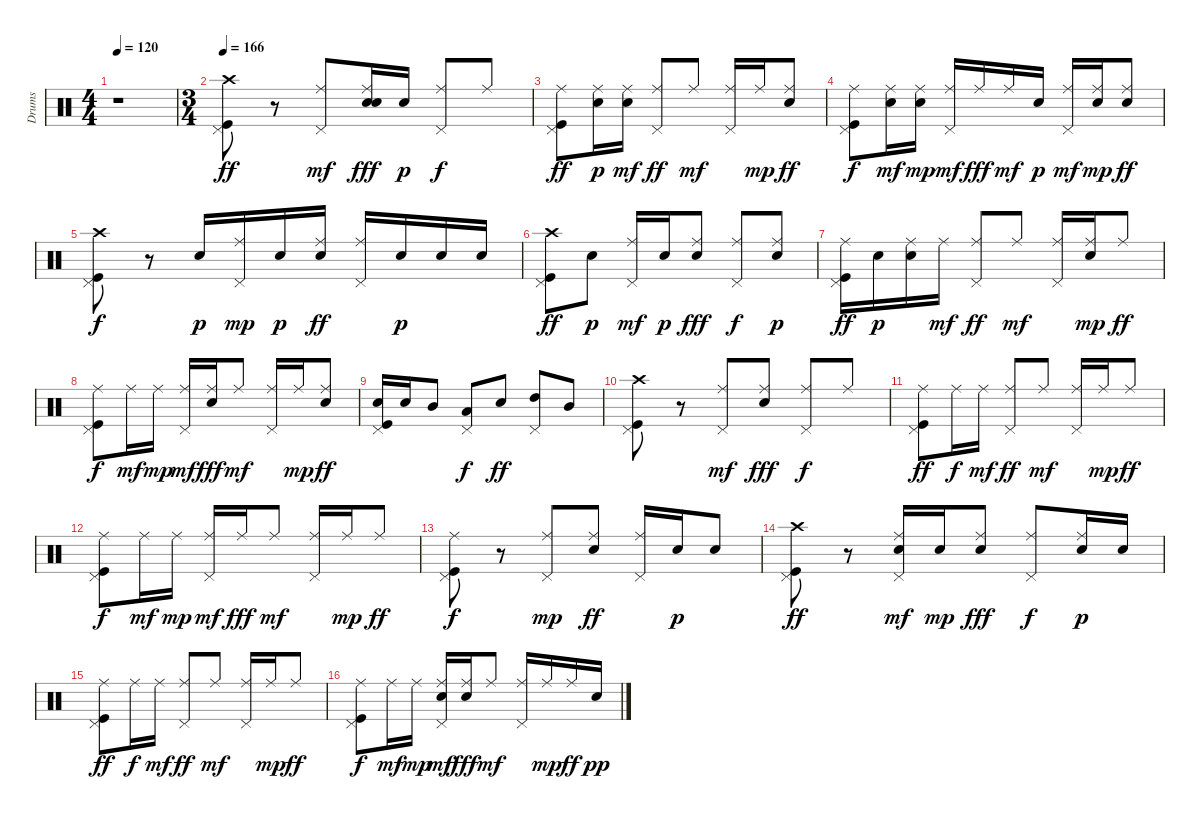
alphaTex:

\track ("Drums" "Drums") {instrument percussion}
\staff {score}
\articulation defaults
\ts (4 4)
\tempo 120
\clef neutral
\ks c
r.1{dy ff} |
\ts (3 4)
\tempo 166
("Kick (hit)" "Pedal Hi-Hat (hit)" "Crash high (hit)").8 r.8 ("Pedal Hi-Hat (hit)" "Ride (middle)").8{dy mf} ("Snare (hit) 2" "Electric Snare (hit)" "Ride (middle)").16{dy fff} "Snare (hit) 2".16{dy p} ("Pedal Hi-Hat (hit)" "Ride (middle)").8{dy f} "Ride (middle)".8 |
("Kick (hit)" "Pedal Hi-Hat (hit)" "Ride (middle)").8{dy ff} ("Snare (hit) 2" "Ride (middle)").16{dy p} ("Snare (hit) 2" "Ride (middle)").16{dy mf} ("Pedal Hi-Hat (hit)" "Ride (middle)").8{dy ff} "Ride (middle)".8{dy mf} ("Pedal Hi-Hat (hit)" "Ride (middle)").16 "Ride (middle)".16{dy mp} ("Snare (hit) 2" "Ride (middle)").8{dy ff} |
("Kick (hit)" "Pedal Hi-Hat (hit)" "Ride (middle)").8{dy f} ("Snare (hit) 2" "Ride (middle)").16{dy mf} ("Snare (hit) 2" "Ride (middle)").16{dy mp} ("Pedal Hi-Hat (hit)" "Ride (middle)").16{dy mf} "Ride (middle)".16{dy fff} "Ride (middle)".16{dy mf} "Snare (hit) 2".16{dy p} ("Pedal Hi-Hat (hit)" "Ride (middle)").16{dy mf} ("Snare (hit) 2" "Ride (middle)").16{dy mp} ("Snare (hit) 2" "Ride (middle)").8{dy ff} |
("Kick (hit)" "Pedal Hi-Hat (hit)" "Crash high (hit)").8{dy f} r.8 "Snare (hit) 2".16{dy p} ("Pedal Hi-Hat (hit)" "Ride (middle)").16{dy mp} "Snare (hit) 2".16{dy p} ("Electric Snare (hit)" "Ride (middle)").16{dy ff} ("Pedal Hi-Hat (hit)" "Ride (middle)").16 "Snare (hit) 2".16{dy p} "Snare (hit) 2".16 "Snare (hit) 2".16 |
("Kick (hit)" "Pedal Hi-Hat (hit)" "Crash high (hit)").8{dy ff} "Snare (hit) 2".8{dy p} ("Pedal Hi-Hat (hit)" "Ride (middle)").16{dy mf} "Snare (hit) 2".16{dy p} ("Electric Snare (hit)" "Ride (middle)").8{dy fff} ("Pedal Hi-Hat (hit)" "Ride (middle)").8{dy f} ("Snare (hit) 2" "Ride (middle)").8{dy p} |
("Kick (hit)" "Pedal Hi-Hat (hit)" "Ride (middle)").16{dy ff} "Snare (hit) 2".16{dy p} ("Snare (hit) 2" "Ride (middle)").16 "Ride (middle)".16{dy mf} ("Pedal Hi-Hat (hit)" "Ride (middle)").8{dy ff} "Ride (middle)".8{dy mf} ("Pedal Hi-Hat (hit)" "Ride (middle)").16 ("Snare (hit) 2" "Ride (middle)").16{dy mp} "Ride (middle)".8{dy ff} |
("Kick (hit)" "Pedal Hi-Hat (hit)" "Ride (middle)").8{dy f} "Ride (middle)".16{dy mf} "Ride (middle)".16{dy mp} ("Pedal Hi-Hat (hit)" "Ride (middle)").16{dy mf} ("Snare (hit) 2" "Ride (middle)").16{dy fff} "Ride (middle)".8{dy mf} ("Pedal Hi-Hat (hit)" "Ride (middle)").16 "Ride (middle)".16{dy mp} ("Snare (hit) 2" "Ride (middle)").8{dy ff} |
("Kick (hit)" "Electric Snare (hit)" "Pedal Hi-Hat (hit)").16 "Electric Snare (hit)".16 "Mid Tom (hit)".8 ("Low Tom (hit)" "Pedal Hi-Hat (hit)").8{dy f} "Electric Snare (hit)".8{dy ff} ("High Tom (hit)" "Pedal Hi-Hat (hit)").8 "Mid Tom (hit)".8 |
("Kick (hit)" "Pedal Hi-Hat (hit)" "Crash high (hit)").8 r.8 ("Pedal Hi-Hat (hit)" "Ride (middle)").8{dy mf} ("Electric Snare (hit)" "Ride (middle)").8{dy fff} ("Pedal Hi-Hat (hit)" "Ride (middle)").8{dy f} "Ride (middle)".8 |
("Kick (hit)" "Pedal Hi-Hat (hit)" "Ride (middle)").8{dy ff} "Ride (middle)".16{dy f} "Ride (middle)".16{dy mf} ("Pedal Hi-Hat (hit)" "Ride (middle)").8{dy ff} "Ride (middle)".8{dy mf} ("Pedal Hi-Hat (hit)" "Ride (middle)").16 "Ride (middle)".16{dy mp} "Ride (middle)".8{dy ff} |
("Kick (hit)" "Pedal Hi-Hat (hit)" "Ride (middle)").8{dy f} "Ride (middle)".16{dy mf} "Ride (middle)".16{dy mp} ("Pedal Hi-Hat (hit)" "Ride (middle)").16{dy mf} "Ride (middle)".16{dy fff} "Ride (middle)".8{dy mf} ("Pedal Hi-Hat (hit)" "Ride (middle)").16 "Ride (middle)".16{dy mp} "Ride (middle)".8{dy ff} |
("Kick (hit)" "Pedal Hi-Hat (hit)" "Ride (middle)").8{dy f} r.8 ("Pedal Hi-Hat (hit)" "Ride (middle)").8{dy mp} ("Snare (hit) 2" "Ride (middle)").8{dy ff} ("Pedal Hi-Hat (hit)" "Ride (middle)").16 "Snare (hit) 2".16{dy p} "Snare (hit) 2".8 |
("Kick (hit)" "Pedal Hi-Hat (hit)" "Crash high (hit)").8{dy ff} r.8 ("Snare (hit) 2" "Pedal Hi-Hat (hit)" "Ride (middle)").16{dy mf} "Snare (hit) 2".16{dy mp} ("Snare (hit) 2" "Ride (middle)").8{dy fff} ("Pedal Hi-Hat (hit)" "Ride (middle)").8{dy f} ("Snare (hit) 2" "Ride (middle)").16{dy p} "Snare (hit) 2".16 |
("Kick (hit)" "Pedal Hi-Hat (hit)" "Ride (middle)").8{dy ff} "Ride (middle)".16{dy f} "Ride (middle)".16{dy mf} ("Pedal Hi-Hat (hit)" "Ride (middle)").8{dy ff} "Ride (middle)".8{dy mf} ("Pedal Hi-Hat (hit)" "Ride (middle)").16 "Ride (middle)".16{dy mp} "Ride (middle)".8{dy ff} |
("Kick (hit)" "Pedal Hi-Hat (hit)" "Ride (middle)").8{dy f} "Ride (middle)".16{dy mf} "Ride (middle)".16{dy mp} ("Snare (hit) 2" "Pedal Hi-Hat (hit)" "Ride (middle)").16{dy mf} ("Snare (hit) 2" "Ride (middle)").16{dy fff} "Ride (middle)".8{dy mf} ("Pedal Hi-Hat (hit)" "Ride (middle)").16 "Ride (middle)".16{dy mp} "Ride (middle)".16{dy ff} "Snare (hit) 2".16{dy pp}
